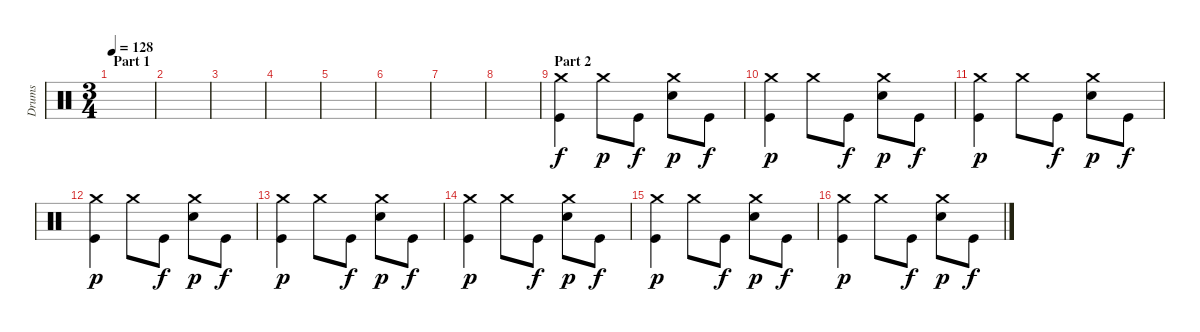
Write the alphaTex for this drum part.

\track ("Drums" "Drums") {instrument percussion}
\staff {score}
\articulation defaults
\ts (3 4)
\section ("" "Part 1")
\tempo 128
\clef neutral
\ks c
|
|
|
|
|
|
|
|
\section ("" "Part 2")
("Crash medium (hit)" "Kick (hit)").4 "Crash medium (hit)".8{dy p} "Kick (hit)".8{dy f} ("Crash medium (hit)" "Electric Snare (hit)").8{dy p} "Kick (hit)".8{dy f} |
("Crash medium (hit)" "Kick (hit)").4{dy p} "Crash medium (hit)".8 "Kick (hit)".8{dy f} ("Crash medium (hit)" "Electric Snare (hit)").8{dy p} "Kick (hit)".8{dy f} |
("Crash medium (hit)" "Kick (hit)").4{dy p} "Crash medium (hit)".8 "Kick (hit)".8{dy f} ("Crash medium (hit)" "Electric Snare (hit)").8{dy p} "Kick (hit)".8{dy f} |
("Crash medium (hit)" "Kick (hit)").4{dy p} "Crash medium (hit)".8 "Kick (hit)".8{dy f} ("Crash medium (hit)" "Electric Snare (hit)").8{dy p} "Kick (hit)".8{dy f} |
("Crash medium (hit)" "Kick (hit)").4{dy p} "Crash medium (hit)".8 "Kick (hit)".8{dy f} ("Crash medium (hit)" "Electric Snare (hit)").8{dy p} "Kick (hit)".8{dy f} |
("Crash medium (hit)" "Kick (hit)").4{dy p} "Crash medium (hit)".8 "Kick (hit)".8{dy f} ("Crash medium (hit)" "Electric Snare (hit)").8{dy p} "Kick (hit)".8{dy f} |
("Crash medium (hit)" "Kick (hit)").4{dy p} "Crash medium (hit)".8 "Kick (hit)".8{dy f} ("Crash medium (hit)" "Electric Snare (hit)").8{dy p} "Kick (hit)".8{dy f} |
("Crash medium (hit)" "Kick (hit)").4{dy p} "Crash medium (hit)".8 "Kick (hit)".8{dy f} ("Crash medium (hit)" "Electric Snare (hit)").8{dy p} "Kick (hit)".8{dy f}
